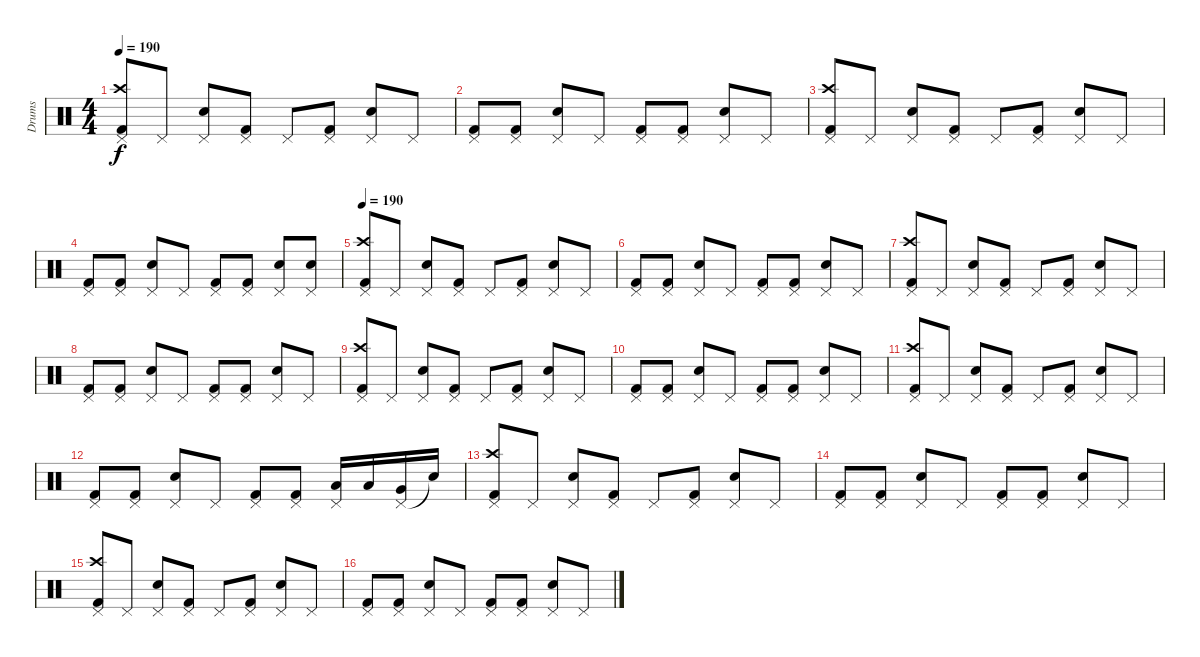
\track ("Drums" "Drums") {instrument percussion}
\staff {score}
\articulation defaults
\ts (4 4)
\tempo 190
\clef neutral
\ks c
("Pedal Hi-Hat (hit)" "Crash high (hit)" "Kick (hit) 2").8{dy f} "Pedal Hi-Hat (hit)".8 ("Pedal Hi-Hat (hit)" "Snare (hit) 2").8 ("Pedal Hi-Hat (hit)" "Kick (hit) 2").8 "Pedal Hi-Hat (hit)".8 ("Pedal Hi-Hat (hit)" "Kick (hit) 2").8 ("Pedal Hi-Hat (hit)" "Snare (hit) 2").8 "Pedal Hi-Hat (hit)".8 |
("Pedal Hi-Hat (hit)" "Kick (hit) 2").8 ("Pedal Hi-Hat (hit)" "Kick (hit) 2").8 ("Pedal Hi-Hat (hit)" "Snare (hit) 2").8 "Pedal Hi-Hat (hit)".8 ("Pedal Hi-Hat (hit)" "Kick (hit) 2").8 ("Pedal Hi-Hat (hit)" "Kick (hit) 2").8 ("Pedal Hi-Hat (hit)" "Snare (hit) 2").8 "Pedal Hi-Hat (hit)".8 |
("Pedal Hi-Hat (hit)" "Crash high (hit)" "Kick (hit) 2").8 "Pedal Hi-Hat (hit)".8 ("Pedal Hi-Hat (hit)" "Snare (hit) 2").8 ("Pedal Hi-Hat (hit)" "Kick (hit) 2").8 "Pedal Hi-Hat (hit)".8 ("Pedal Hi-Hat (hit)" "Kick (hit) 2").8 ("Pedal Hi-Hat (hit)" "Snare (hit) 2").8 "Pedal Hi-Hat (hit)".8 |
("Pedal Hi-Hat (hit)" "Kick (hit) 2").8 ("Pedal Hi-Hat (hit)" "Kick (hit) 2").8 ("Pedal Hi-Hat (hit)" "Snare (hit) 2").8 "Pedal Hi-Hat (hit)".8 ("Pedal Hi-Hat (hit)" "Kick (hit) 2").8 ("Pedal Hi-Hat (hit)" "Kick (hit) 2").8 ("Pedal Hi-Hat (hit)" "Snare (hit) 2").8 ("Pedal Hi-Hat (hit)" "Snare (hit) 2").8 |
\tempo 190
("Pedal Hi-Hat (hit)" "Crash high (hit)" "Kick (hit) 2").8 "Pedal Hi-Hat (hit)".8 ("Pedal Hi-Hat (hit)" "Snare (hit) 2").8 ("Pedal Hi-Hat (hit)" "Kick (hit) 2").8 "Pedal Hi-Hat (hit)".8 ("Pedal Hi-Hat (hit)" "Kick (hit) 2").8 ("Pedal Hi-Hat (hit)" "Snare (hit) 2").8 "Pedal Hi-Hat (hit)".8 |
("Pedal Hi-Hat (hit)" "Kick (hit) 2").8 ("Pedal Hi-Hat (hit)" "Kick (hit) 2").8 ("Pedal Hi-Hat (hit)" "Snare (hit) 2").8 "Pedal Hi-Hat (hit)".8 ("Pedal Hi-Hat (hit)" "Kick (hit) 2").8 ("Pedal Hi-Hat (hit)" "Kick (hit) 2").8 ("Pedal Hi-Hat (hit)" "Snare (hit) 2").8 "Pedal Hi-Hat (hit)".8 |
("Pedal Hi-Hat (hit)" "Crash high (hit)" "Kick (hit) 2").8 "Pedal Hi-Hat (hit)".8 ("Pedal Hi-Hat (hit)" "Snare (hit) 2").8 ("Pedal Hi-Hat (hit)" "Kick (hit) 2").8 "Pedal Hi-Hat (hit)".8 ("Pedal Hi-Hat (hit)" "Kick (hit) 2").8 ("Pedal Hi-Hat (hit)" "Snare (hit) 2").8 "Pedal Hi-Hat (hit)".8 |
("Pedal Hi-Hat (hit)" "Kick (hit) 2").8 ("Pedal Hi-Hat (hit)" "Kick (hit) 2").8 ("Pedal Hi-Hat (hit)" "Snare (hit) 2").8 "Pedal Hi-Hat (hit)".8 ("Pedal Hi-Hat (hit)" "Kick (hit) 2").8 ("Pedal Hi-Hat (hit)" "Kick (hit) 2").8 ("Pedal Hi-Hat (hit)" "Snare (hit) 2").8 "Pedal Hi-Hat (hit)".8 |
("Pedal Hi-Hat (hit)" "Crash high (hit)" "Kick (hit) 2").8 "Pedal Hi-Hat (hit)".8 ("Pedal Hi-Hat (hit)" "Snare (hit) 2").8 ("Pedal Hi-Hat (hit)" "Kick (hit) 2").8 "Pedal Hi-Hat (hit)".8 ("Pedal Hi-Hat (hit)" "Kick (hit) 2").8 ("Pedal Hi-Hat (hit)" "Snare (hit) 2").8 "Pedal Hi-Hat (hit)".8 |
("Pedal Hi-Hat (hit)" "Kick (hit) 2").8 ("Pedal Hi-Hat (hit)" "Kick (hit) 2").8 ("Pedal Hi-Hat (hit)" "Snare (hit) 2").8 "Pedal Hi-Hat (hit)".8 ("Pedal Hi-Hat (hit)" "Kick (hit) 2").8 ("Pedal Hi-Hat (hit)" "Kick (hit) 2").8 ("Pedal Hi-Hat (hit)" "Snare (hit) 2").8 "Pedal Hi-Hat (hit)".8 |
("Pedal Hi-Hat (hit)" "Crash high (hit)" "Kick (hit) 2").8 "Pedal Hi-Hat (hit)".8 ("Pedal Hi-Hat (hit)" "Snare (hit) 2").8 ("Pedal Hi-Hat (hit)" "Kick (hit) 2").8 "Pedal Hi-Hat (hit)".8 ("Pedal Hi-Hat (hit)" "Kick (hit) 2").8 ("Pedal Hi-Hat (hit)" "Snare (hit) 2").8 "Pedal Hi-Hat (hit)".8 |
("Pedal Hi-Hat (hit)" "Kick (hit) 2").8 ("Pedal Hi-Hat (hit)" "Kick (hit) 2").8 ("Pedal Hi-Hat (hit)" "Snare (hit) 2").8 "Pedal Hi-Hat (hit)".8 ("Pedal Hi-Hat (hit)" "Kick (hit) 2").8 ("Pedal Hi-Hat (hit)" "Kick (hit) 2").8 ("Pedal Hi-Hat (hit)" "Low Tom (hit)").16 "Low Tom (hit)".16 ("Pedal Hi-Hat (hit)" "Very Low Tom (hit)").16 "Snare (hit)"{t}.16 |
("Pedal Hi-Hat (hit)" "Crash high (hit)" "Kick (hit) 2").8 "Pedal Hi-Hat (hit)".8 ("Pedal Hi-Hat (hit)" "Snare (hit) 2").8 ("Pedal Hi-Hat (hit)" "Kick (hit) 2").8 "Pedal Hi-Hat (hit)".8 ("Pedal Hi-Hat (hit)" "Kick (hit) 2").8 ("Pedal Hi-Hat (hit)" "Snare (hit) 2").8 "Pedal Hi-Hat (hit)".8 |
("Pedal Hi-Hat (hit)" "Kick (hit) 2").8 ("Pedal Hi-Hat (hit)" "Kick (hit) 2").8 ("Pedal Hi-Hat (hit)" "Snare (hit) 2").8 "Pedal Hi-Hat (hit)".8 ("Pedal Hi-Hat (hit)" "Kick (hit) 2").8 ("Pedal Hi-Hat (hit)" "Kick (hit) 2").8 ("Pedal Hi-Hat (hit)" "Snare (hit) 2").8 "Pedal Hi-Hat (hit)".8 |
("Pedal Hi-Hat (hit)" "Crash high (hit)" "Kick (hit) 2").8 "Pedal Hi-Hat (hit)".8 ("Pedal Hi-Hat (hit)" "Snare (hit) 2").8 ("Pedal Hi-Hat (hit)" "Kick (hit) 2").8 "Pedal Hi-Hat (hit)".8 ("Pedal Hi-Hat (hit)" "Kick (hit) 2").8 ("Pedal Hi-Hat (hit)" "Snare (hit) 2").8 "Pedal Hi-Hat (hit)".8 |
("Pedal Hi-Hat (hit)" "Kick (hit) 2").8 ("Pedal Hi-Hat (hit)" "Kick (hit) 2").8 ("Pedal Hi-Hat (hit)" "Snare (hit) 2").8 "Pedal Hi-Hat (hit)".8 ("Pedal Hi-Hat (hit)" "Kick (hit) 2").8 ("Pedal Hi-Hat (hit)" "Kick (hit) 2").8 ("Pedal Hi-Hat (hit)" "Snare (hit) 2").8 "Pedal Hi-Hat (hit)".8
